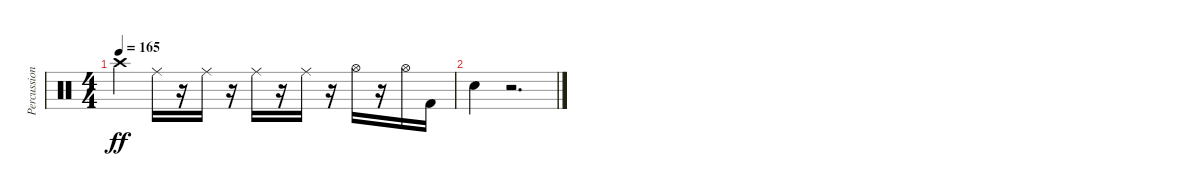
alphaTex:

\track ("Percussions" "Percussion") {instrument percussion}
\staff {score}
\articulation defaults
\ts (4 4)
\tempo 165
\clef neutral
\ks c "Crash high (hit)".4{dy ff} "Ride (middle)".16
r.16 "Ride (middle)".16 r.16 "Ride (middle)".16 r.16 "Ride (middle)".16 r.16 "Hi-Hat (open)".16 r.16 "Hi-Hat (open)".16 "Kick (hit) 2".16 |
"Snare (hit) 2".4 r.2{d}
